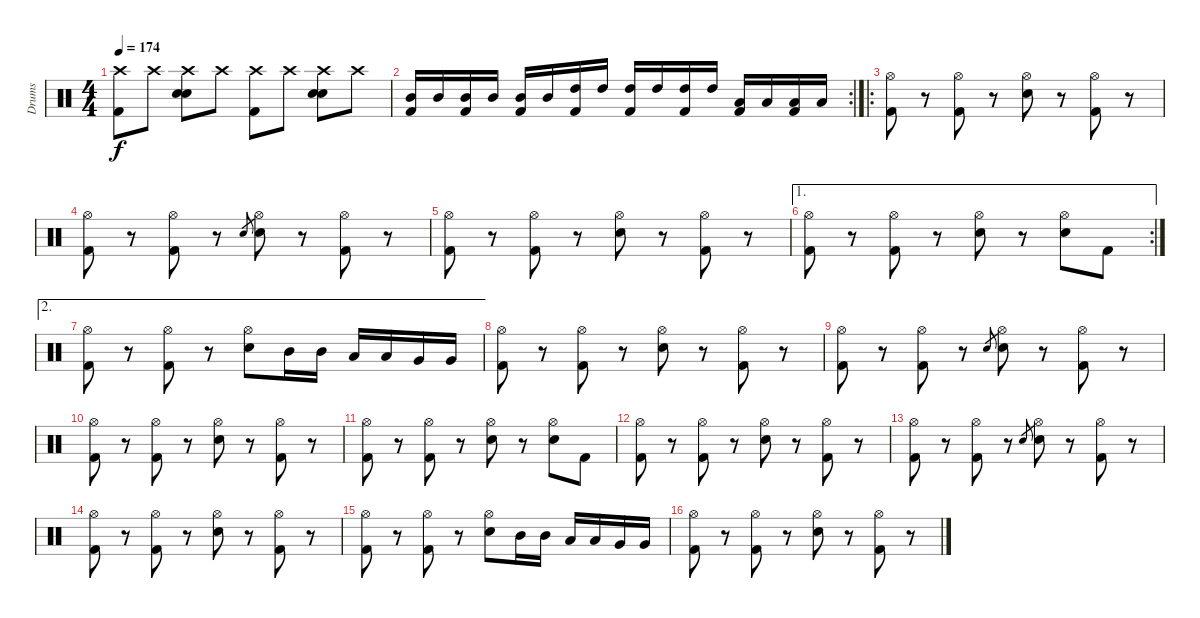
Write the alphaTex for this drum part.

\track ("Drums" "Drums") {instrument percussion}
\staff {score}
\articulation defaults
\ts (4 4)
\tempo 174
\clef neutral
\ks c
("Crash high (hit)" "Kick (hit) 2").8{dy f} "Crash high (hit)".8 ("Crash high (hit)" "Electric Snare (hit)" "Electric Snare (hit)").8 "Crash high (hit)".8 ("Crash high (hit)" "Kick (hit) 2").8 "Crash high (hit)".8 ("Crash high (hit)" "Electric Snare (hit)" "Electric Snare (hit)").8 "Crash high (hit)".8 |
\rc 2
("Mid Tom (hit)" "Kick (hit) 2").16 "Mid Tom (hit)".16 ("Mid Tom (hit)" "Kick (hit) 2").16 "Mid Tom (hit)".16 ("Mid Tom (hit)" "Kick (hit) 2").16 "Mid Tom (hit)".16 ("High Tom (hit)" "Kick (hit) 2").16 "High Tom (hit)".16 ("High Tom (hit)" "Kick (hit) 2").16 "High Tom (hit)".16 ("High Tom (hit)" "Kick (hit) 2").16 "High Tom (hit)".16 ("Low Tom (hit)" "Kick (hit) 2").16 "Low Tom (hit)".16 ("Low Tom (hit)" "Kick (hit) 2").16 "Low Tom (hit)".16 |
\ro
("Hi-Hat (open)" "Kick (hit) 2").8 r.8 ("Hi-Hat (open)" "Kick (hit) 2").8 r.8 ("Hi-Hat (open)" "Electric Snare (hit)").8 r.8 ("Hi-Hat (open)" "Kick (hit) 2").8 r.8 |
("Hi-Hat (open)" "Kick (hit) 2").8 r.8 ("Hi-Hat (open)" "Kick (hit) 2").8 r.8 "Electric Snare (hit)".8{gr} ("Hi-Hat (open)" "Electric Snare (hit)").8 r.8 ("Hi-Hat (open)" "Kick (hit) 2").8 r.8 |
("Hi-Hat (open)" "Kick (hit) 2").8 r.8 ("Hi-Hat (open)" "Kick (hit) 2").8 r.8 ("Hi-Hat (open)" "Electric Snare (hit)").8 r.8 ("Hi-Hat (open)" "Kick (hit) 2").8 r.8 |
\ae 1
\rc 2
("Hi-Hat (open)" "Kick (hit) 2").8 r.8 ("Hi-Hat (open)" "Kick (hit) 2").8 r.8 ("Hi-Hat (open)" "Electric Snare (hit)").8 r.8 ("Hi-Hat (open)" "Electric Snare (hit)").8 "Kick (hit) 2".8 |
\ae 2
("Hi-Hat (open)" "Kick (hit) 2").8 r.8 ("Hi-Hat (open)" "Kick (hit) 2").8 r.8 ("Hi-Hat (open)" "Electric Snare (hit)").8 "Mid Tom (hit)".16 "Mid Tom (hit)".16 "Low Tom (hit)".16 "Low Tom (hit)".16 "Very Low Tom (hit)".16 "Very Low Tom (hit)".16 |
("Hi-Hat (open)" "Kick (hit) 2").8 r.8 ("Hi-Hat (open)" "Kick (hit) 2").8 r.8 ("Hi-Hat (open)" "Electric Snare (hit)").8 r.8 ("Hi-Hat (open)" "Kick (hit) 2").8 r.8 |
("Hi-Hat (open)" "Kick (hit) 2").8 r.8 ("Hi-Hat (open)" "Kick (hit) 2").8 r.8 "Electric Snare (hit)".8{gr} ("Hi-Hat (open)" "Electric Snare (hit)").8 r.8 ("Hi-Hat (open)" "Kick (hit) 2").8 r.8 |
("Hi-Hat (open)" "Kick (hit) 2").8 r.8 ("Hi-Hat (open)" "Kick (hit) 2").8 r.8 ("Hi-Hat (open)" "Electric Snare (hit)").8 r.8 ("Hi-Hat (open)" "Kick (hit) 2").8 r.8 |
("Hi-Hat (open)" "Kick (hit) 2").8 r.8 ("Hi-Hat (open)" "Kick (hit) 2").8 r.8 ("Hi-Hat (open)" "Electric Snare (hit)").8 r.8 ("Hi-Hat (open)" "Electric Snare (hit)").8 "Kick (hit) 2".8 |
("Hi-Hat (open)" "Kick (hit) 2").8 r.8 ("Hi-Hat (open)" "Kick (hit) 2").8 r.8 ("Hi-Hat (open)" "Electric Snare (hit)").8 r.8 ("Hi-Hat (open)" "Kick (hit) 2").8 r.8 |
("Hi-Hat (open)" "Kick (hit) 2").8 r.8 ("Hi-Hat (open)" "Kick (hit) 2").8 r.8 "Electric Snare (hit)".8{gr} ("Hi-Hat (open)" "Electric Snare (hit)").8 r.8 ("Hi-Hat (open)" "Kick (hit) 2").8 r.8 |
("Hi-Hat (open)" "Kick (hit) 2").8 r.8 ("Hi-Hat (open)" "Kick (hit) 2").8 r.8 ("Hi-Hat (open)" "Electric Snare (hit)").8 r.8 ("Hi-Hat (open)" "Kick (hit) 2").8 r.8 |
("Hi-Hat (open)" "Kick (hit) 2").8 r.8 ("Hi-Hat (open)" "Kick (hit) 2").8 r.8 ("Hi-Hat (open)" "Electric Snare (hit)").8 "Mid Tom (hit)".16 "Mid Tom (hit)".16 "Low Tom (hit)".16 "Low Tom (hit)".16 "Very Low Tom (hit)".16 "Very Low Tom (hit)".16 |
("Hi-Hat (open)" "Kick (hit) 2").8 r.8 ("Hi-Hat (open)" "Kick (hit) 2").8 r.8 ("Hi-Hat (open)" "Electric Snare (hit)").8 r.8 ("Hi-Hat (open)" "Kick (hit) 2").8 r.8
